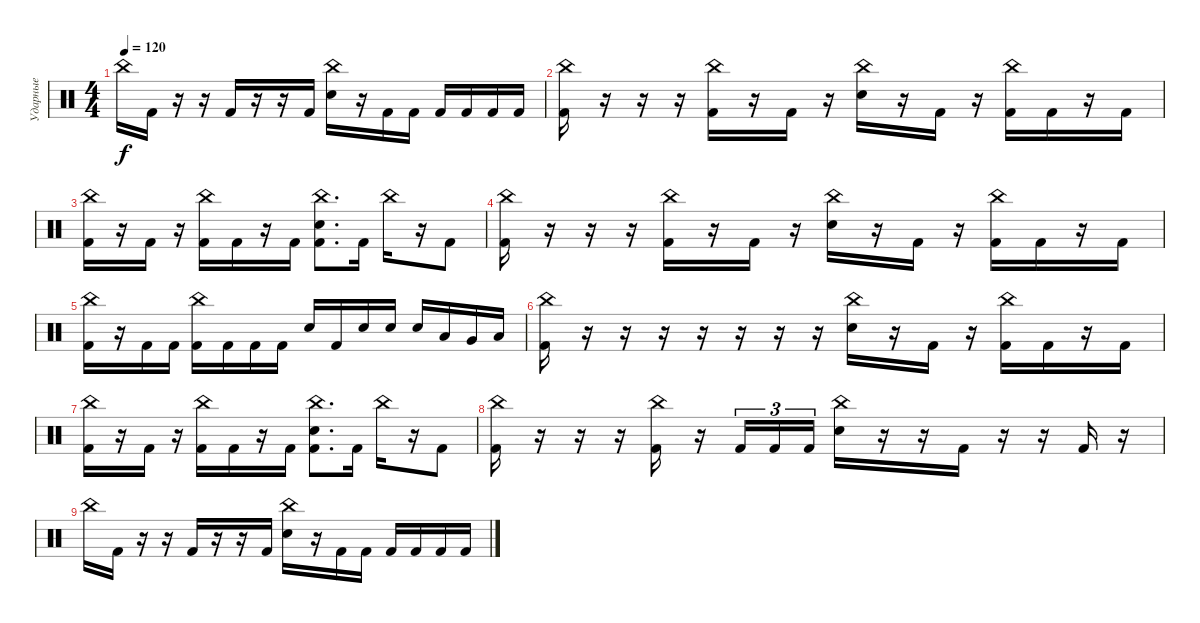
\track ("Ударные" "Ударные") {instrument percussion}
\staff {score}
\articulation defaults
\ts (4 4)
\tempo 120
\clef neutral
\ks c "China (hit)".16{dy f} "Kick (hit) 2".16
r.16 r.16 "Kick (hit) 2".16 r.16 r.16 "Kick (hit) 2".16 ("China (hit)" "Electric Snare (hit)").16 r.16 "Kick (hit) 2".16 "Kick (hit) 2".16 "Kick (hit) 2".16 "Kick (hit) 2".16 "Kick (hit) 2".16 "Kick (hit) 2".16 |
("China (hit)" "Kick (hit) 2").16 r.16 r.16 r.16 ("China (hit)" "Kick (hit) 2").16 r.16 "Kick (hit) 2".16 r.16 ("China (hit)" "Electric Snare (hit)").16 r.16 "Kick (hit) 2".16 r.16 ("China (hit)" "Kick (hit) 2").16 "Kick (hit) 2".16 r.16 "Kick (hit) 2".16 |
("China (hit)" "Kick (hit) 2").16 r.16 "Kick (hit) 2".16 r.16 ("China (hit)" "Kick (hit) 2").16 "Kick (hit) 2".16 r.16 "Kick (hit) 2".16 ("China (hit)" "Electric Snare (hit)" "Kick (hit) 2").8{d} "Kick (hit) 2".16 "China (hit)".16 r.16 "Kick (hit) 2".8 |
("China (hit)" "Kick (hit) 2").16 r.16 r.16 r.16 ("China (hit)" "Kick (hit) 2").16 r.16 "Kick (hit) 2".16 r.16 ("China (hit)" "Electric Snare (hit)").16 r.16 "Kick (hit) 2".16 r.16 ("China (hit)" "Kick (hit) 2").16 "Kick (hit) 2".16 r.16 "Kick (hit) 2".16 |
("China (hit)" "Kick (hit) 2").16 r.16 "Kick (hit) 2".16 "Kick (hit) 2".16 ("China (hit)" "Kick (hit) 2").16 "Kick (hit) 2".16 "Kick (hit) 2".16 "Kick (hit) 2".16 "Electric Snare (hit)".16 "Kick (hit) 2".16 "Electric Snare (hit)".16 "Electric Snare (hit)".16 "Electric Snare (hit)".16 "Low Tom (hit)".16 "Very Low Tom (hit)".16 "Low Floor Tom (hit)".16 |
("China (hit)" "Kick (hit) 2").16 r.16 r.16 r.16 r.16 r.16 r.16 r.16 ("China (hit)" "Electric Snare (hit)").16 r.16 "Kick (hit) 2".16 r.16 ("China (hit)" "Kick (hit) 2").16 "Kick (hit) 2".16 r.16 "Kick (hit) 2".16 |
("China (hit)" "Kick (hit) 2").16 r.16 "Kick (hit) 2".16 r.16 ("China (hit)" "Kick (hit) 2").16 "Kick (hit) 2".16 r.16 "Kick (hit) 2".16 ("China (hit)" "Electric Snare (hit)" "Kick (hit) 2").8{d} "Kick (hit) 2".16 "China (hit)".16 r.16 "Kick (hit) 2".8 |
("China (hit)" "Kick (hit) 2").16 r.16 r.16 r.16 ("China (hit)" "Kick (hit) 2").16 r.16 "Kick (hit) 2".16{tu (3 2)} "Kick (hit) 2".16{tu (3 2)} "Kick (hit) 2".16{tu (3 2)} ("China (hit)" "Electric Snare (hit)").16 r.16 r.16 "Kick (hit) 2".16 r.16 r.16 "Kick (hit) 2".16 r.16 |
"China (hit)".16 "Kick (hit) 2".16 r.16 r.16 "Kick (hit) 2".16 r.16 r.16 "Kick (hit) 2".16 ("China (hit)" "Electric Snare (hit)").16 r.16 "Kick (hit) 2".16 "Kick (hit) 2".16 "Kick (hit) 2".16 "Kick (hit) 2".16 "Kick (hit) 2".16 "Kick (hit) 2".16
